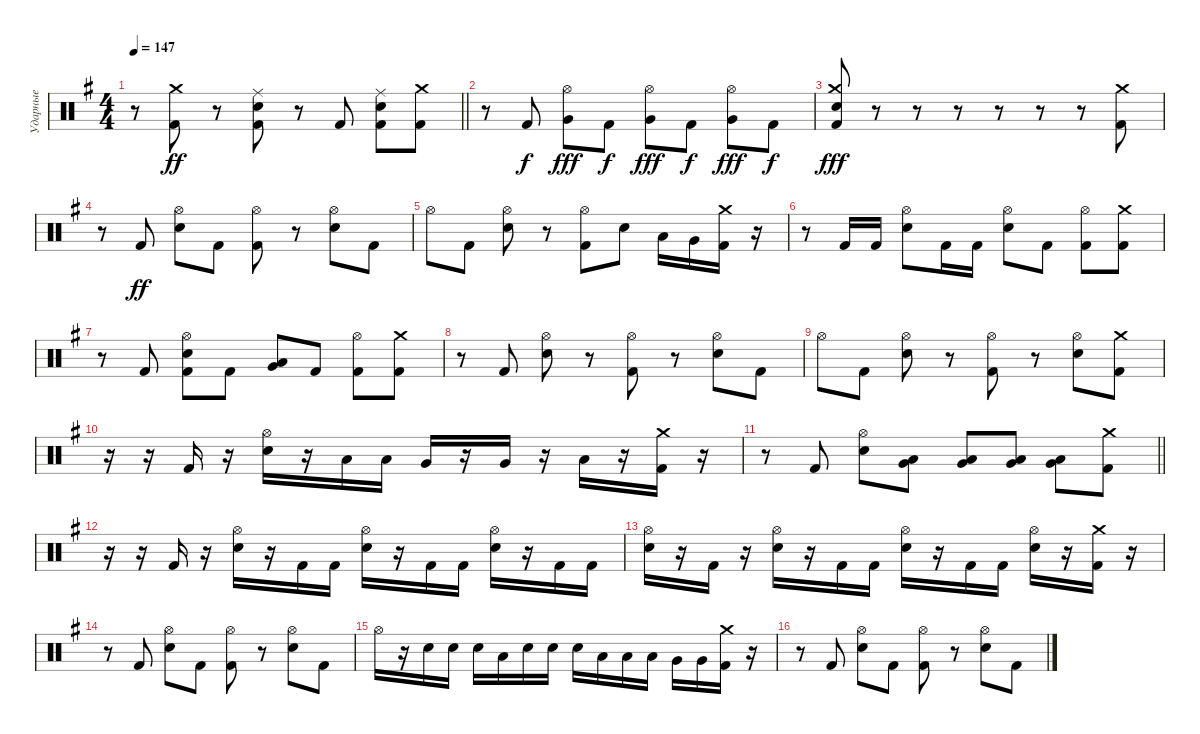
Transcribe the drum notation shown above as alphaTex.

\track ("Ударные" "Ударные") {instrument percussion}
\staff {score}
\articulation defaults
\ts (4 4)
\tempo 147
\clef neutral
\barLineRight lightlight
\ks eminor
r.8{dy ff} ("Kick (hit) 2" "Crash medium (hit)").8 r.8 ("Kick (hit) 2" "Electric Snare (hit)" "Ride (middle)").8 r.8 "Kick (hit) 2".8 ("Kick (hit) 2" "Electric Snare (hit)" "Ride (middle)").8 ("Kick (hit) 2" "Crash medium (hit)").8 |
r.8 "Kick (hit) 2".8{dy f} ("Very Low Tom (hit)" "Hi-Hat (open)").8{dy fff} "Kick (hit) 2".8{dy f} ("Very Low Tom (hit)" "Hi-Hat (open)").8{dy fff} "Kick (hit) 2".8{dy f} ("Very Low Tom (hit)" "Hi-Hat (open)").8{dy fff} "Kick (hit) 2".8{dy f} |
("Crash medium (hit)" "Electric Snare (hit)" "Kick (hit) 2").8{dy fff} r.8 r.8 r.8 r.8 r.8 r.8 ("Kick (hit) 2" "Crash medium (hit)").8 |
r.8 "Kick (hit) 2".8{dy ff} ("Electric Snare (hit)" "Hi-Hat (open)").8 "Kick (hit) 2".8 ("Kick (hit) 2" "Hi-Hat (open)").8 r.8 ("Electric Snare (hit)" "Hi-Hat (open)").8 "Kick (hit) 2".8 |
"Hi-Hat (open)".8 "Kick (hit) 2".8 ("Electric Snare (hit)" "Hi-Hat (open)").8 r.8 ("Kick (hit) 2" "Hi-Hat (open)").8 "Electric Snare (hit)".8 "Low Tom (hit)".16 "Very Low Tom (hit)".16 ("Kick (hit) 2" "Crash medium (hit)").16 r.16 |
r.8 "Kick (hit) 2".16 "Kick (hit) 2".16 ("Electric Snare (hit)" "Hi-Hat (open)").8 "Kick (hit) 2".16 "Kick (hit) 2".16 ("Electric Snare (hit)" "Hi-Hat (open)").8 "Kick (hit) 2".8 ("Kick (hit) 2" "Hi-Hat (open)").8 ("Kick (hit) 2" "Crash medium (hit)").8 |
r.8 "Kick (hit) 2".8 ("Kick (hit) 2" "Electric Snare (hit)" "Hi-Hat (open)").8 "Kick (hit) 2".8 ("Low Tom (hit)" "Very Low Tom (hit)").8 "Kick (hit) 2".8 ("Kick (hit) 2" "Hi-Hat (open)").8 ("Kick (hit) 2" "Crash medium (hit)").8 |
r.8 "Kick (hit) 2".8 ("Electric Snare (hit)" "Hi-Hat (open)").8 r.8 ("Kick (hit) 2" "Hi-Hat (open)").8 r.8 ("Electric Snare (hit)" "Hi-Hat (open)").8 "Kick (hit) 2".8 |
"Hi-Hat (open)".8 "Kick (hit) 2".8 ("Electric Snare (hit)" "Hi-Hat (open)").8 r.8 ("Kick (hit) 2" "Hi-Hat (open)").8 r.8 ("Electric Snare (hit)" "Hi-Hat (open)").8 ("Kick (hit) 2" "Crash medium (hit)").8 |
r.16 r.16 "Kick (hit) 2".16 r.16 ("Electric Snare (hit)" "Hi-Hat (open)").16 r.16 "Low Tom (hit)".16 "Low Tom (hit)".16 "Very Low Tom (hit)".16 r.16 "Very Low Tom (hit)".16 r.16 "Low Floor Tom (hit)".16 r.16 ("Kick (hit) 2" "Crash medium (hit)").16 r.16 |
\barLineRight lightlight
r.8 "Kick (hit) 2".8 ("Electric Snare (hit)" "Hi-Hat (open)").8 ("Low Tom (hit)" "Very Low Tom (hit)").8 ("Very Low Tom (hit)" "Low Tom (hit)").8 ("Low Tom (hit)" "Very Low Tom (hit)").8 ("Low Floor Tom (hit)" "Very Low Tom (hit)").8 ("Kick (hit) 2" "Crash medium (hit)").8 |
r.16 r.16 "Kick (hit) 2".16 r.16 ("Electric Snare (hit)" "Hi-Hat (open)").16 r.16 "Kick (hit) 2".16 "Kick (hit) 2".16 ("Electric Snare (hit)" "Hi-Hat (open)").16 r.16 "Kick (hit) 2".16 "Kick (hit) 2".16 ("Electric Snare (hit)" "Hi-Hat (open)").16 r.16 "Kick (hit) 2".16 "Kick (hit) 2".16 |
("Electric Snare (hit)" "Hi-Hat (open)").16 r.16 "Kick (hit) 2".16 r.16 ("Electric Snare (hit)" "Hi-Hat (open)").16 r.16 "Kick (hit) 2".16 "Kick (hit) 2".16 ("Electric Snare (hit)" "Hi-Hat (open)").16 r.16 "Kick (hit) 2".16 "Kick (hit) 2".16 ("Electric Snare (hit)" "Hi-Hat (open)").16 r.16 ("Kick (hit) 2" "Crash medium (hit)").16 r.16 |
r.8 "Kick (hit) 2".8 ("Electric Snare (hit)" "Hi-Hat (open)").8 "Kick (hit) 2".8 ("Kick (hit) 2" "Hi-Hat (open)").8 r.8 ("Electric Snare (hit)" "Hi-Hat (open)").8 "Kick (hit) 2".8 |
"Hi-Hat (open)".16 r.16 "Electric Snare (hit)".16 "Electric Snare (hit)".16 "Electric Snare (hit)".16 "Low Tom (hit)".16 "Electric Snare (hit)".16 "Electric Snare (hit)".16 "Electric Snare (hit)".16 "Low Tom (hit)".16 "Low Tom (hit)".16 "Low Tom (hit)".16 "Very Low Tom (hit)".16 "Very Low Tom (hit)".16 ("Kick (hit) 2" "Crash medium (hit)").16 r.16 |
r.8 "Kick (hit) 2".8 ("Electric Snare (hit)" "Hi-Hat (open)").8 "Kick (hit) 2".8 ("Kick (hit) 2" "Hi-Hat (open)").8 r.8 ("Electric Snare (hit)" "Hi-Hat (open)").8 "Kick (hit) 2".8
